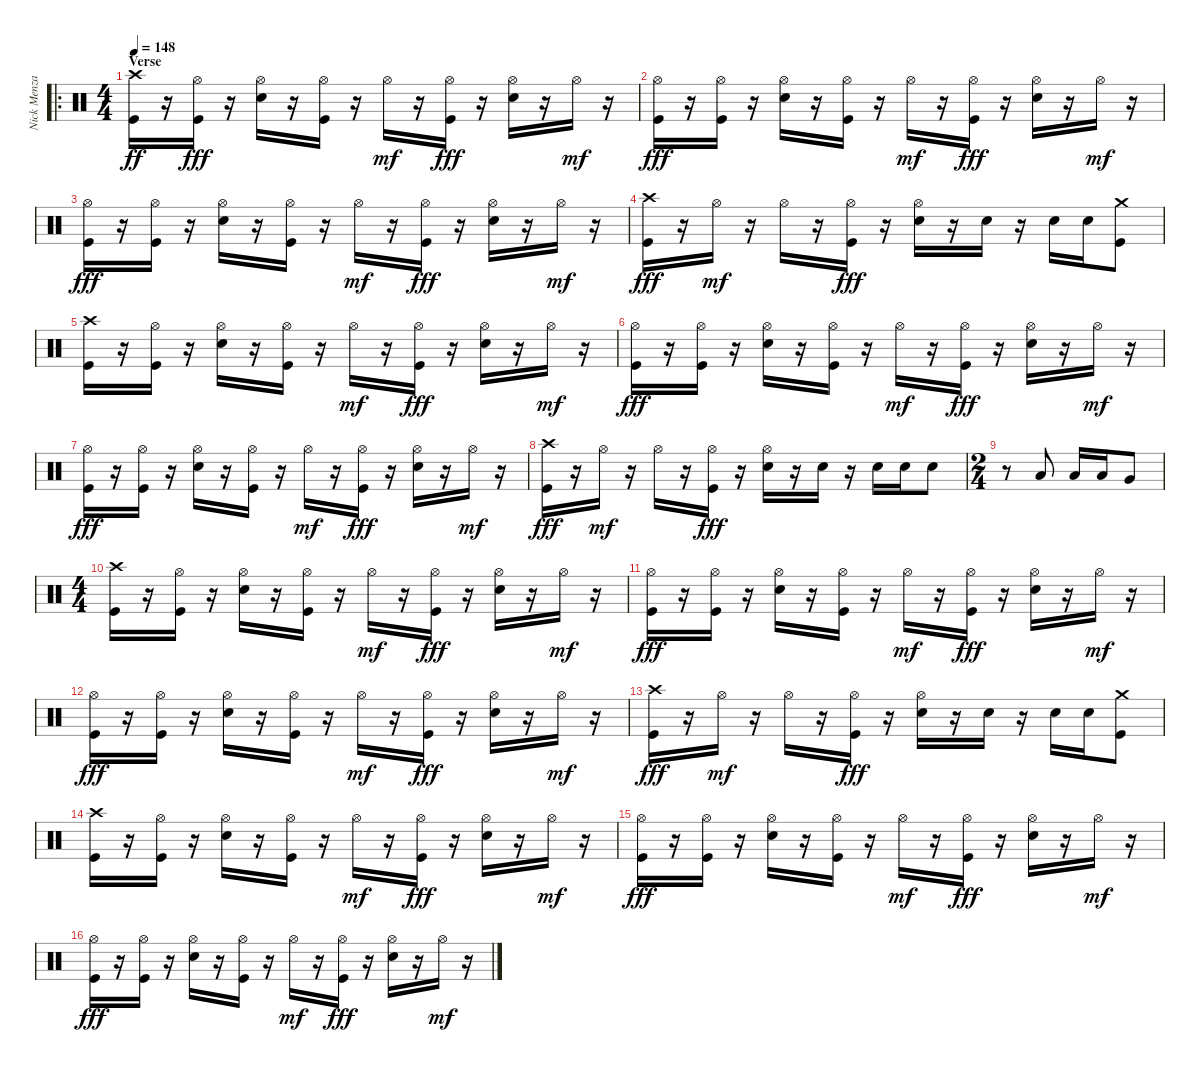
\track ("Nick Menza" "Nick Menza") {instrument percussion}
\staff {score}
\articulation defaults
\ro
\ts (4 4)
\section ("" "Verse")
\tempo 148
\clef neutral
\ks c
("Kick (hit)" "Crash high (hit)").16{dy ff} r.16 ("Kick (hit)" "Hi-Hat (open)").16{dy fff} r.16 ("Snare (hit) 2" "Hi-Hat (open)").16 r.16 ("Kick (hit)" "Hi-Hat (open)").16 r.16 "Hi-Hat (open)".16{dy mf} r.16 ("Kick (hit)" "Hi-Hat (open)").16{dy fff} r.16 ("Snare (hit) 2" "Hi-Hat (open)").16 r.16 "Hi-Hat (open)".16{dy mf} r.16 |
("Kick (hit)" "Hi-Hat (open)").16{dy fff} r.16 ("Kick (hit)" "Hi-Hat (open)").16 r.16 ("Snare (hit) 2" "Hi-Hat (open)").16 r.16 ("Kick (hit)" "Hi-Hat (open)").16 r.16 "Hi-Hat (open)".16{dy mf} r.16 ("Kick (hit)" "Hi-Hat (open)").16{dy fff} r.16 ("Snare (hit) 2" "Hi-Hat (open)").16 r.16 "Hi-Hat (open)".16{dy mf} r.16 |
("Kick (hit)" "Hi-Hat (open)").16{dy fff} r.16 ("Kick (hit)" "Hi-Hat (open)").16 r.16 ("Snare (hit) 2" "Hi-Hat (open)").16 r.16 ("Kick (hit)" "Hi-Hat (open)").16 r.16 "Hi-Hat (open)".16{dy mf} r.16 ("Kick (hit)" "Hi-Hat (open)").16{dy fff} r.16 ("Snare (hit) 2" "Hi-Hat (open)").16 r.16 "Hi-Hat (open)".16{dy mf} r.16 |
("Kick (hit)" "Crash high (hit)").16{dy fff} r.16 "Hi-Hat (open)".16{dy mf} r.16 "Hi-Hat (open)".16 r.16 ("Kick (hit)" "Hi-Hat (open)").16{dy fff} r.16 ("Snare (hit) 2" "Hi-Hat (open)").16 r.16 "Snare (hit) 2".16 r.16 "Snare (hit) 2".16 "Snare (hit) 2".16 ("Kick (hit)" "Crash medium (hit)").8 |
("Kick (hit)" "Crash high (hit)").16 r.16 ("Kick (hit)" "Hi-Hat (open)").16 r.16 ("Snare (hit) 2" "Hi-Hat (open)").16 r.16 ("Kick (hit)" "Hi-Hat (open)").16 r.16 "Hi-Hat (open)".16{dy mf} r.16 ("Kick (hit)" "Hi-Hat (open)").16{dy fff} r.16 ("Snare (hit) 2" "Hi-Hat (open)").16 r.16 "Hi-Hat (open)".16{dy mf} r.16 |
("Kick (hit)" "Hi-Hat (open)").16{dy fff} r.16 ("Kick (hit)" "Hi-Hat (open)").16 r.16 ("Snare (hit) 2" "Hi-Hat (open)").16 r.16 ("Kick (hit)" "Hi-Hat (open)").16 r.16 "Hi-Hat (open)".16{dy mf} r.16 ("Kick (hit)" "Hi-Hat (open)").16{dy fff} r.16 ("Snare (hit) 2" "Hi-Hat (open)").16 r.16 "Hi-Hat (open)".16{dy mf} r.16 |
("Kick (hit)" "Hi-Hat (open)").16{dy fff} r.16 ("Kick (hit)" "Hi-Hat (open)").16 r.16 ("Snare (hit) 2" "Hi-Hat (open)").16 r.16 ("Kick (hit)" "Hi-Hat (open)").16 r.16 "Hi-Hat (open)".16{dy mf} r.16 ("Kick (hit)" "Hi-Hat (open)").16{dy fff} r.16 ("Snare (hit) 2" "Hi-Hat (open)").16 r.16 "Hi-Hat (open)".16{dy mf} r.16 |
("Kick (hit)" "Crash high (hit)").16{dy fff} r.16 "Hi-Hat (open)".16{dy mf} r.16 "Hi-Hat (open)".16 r.16 ("Kick (hit)" "Hi-Hat (open)").16{dy fff} r.16 ("Snare (hit) 2" "Hi-Hat (open)").16 r.16 "Snare (hit) 2".16 r.16 "Snare (hit) 2".16 "Snare (hit) 2".16 "Snare (hit) 2".8 |
\ts (2 4)
r.8 "Low Tom (hit)".8 "Low Tom (hit)".16 "Low Tom (hit)".16 "Very Low Tom (hit)".8 |
\ts (4 4)
("Kick (hit)" "Crash high (hit)").16 r.16 ("Kick (hit)" "Hi-Hat (open)").16 r.16 ("Snare (hit) 2" "Hi-Hat (open)").16 r.16 ("Kick (hit)" "Hi-Hat (open)").16 r.16 "Hi-Hat (open)".16{dy mf} r.16 ("Kick (hit)" "Hi-Hat (open)").16{dy fff} r.16 ("Snare (hit) 2" "Hi-Hat (open)").16 r.16 "Hi-Hat (open)".16{dy mf} r.16 |
("Kick (hit)" "Hi-Hat (open)").16{dy fff} r.16 ("Kick (hit)" "Hi-Hat (open)").16 r.16 ("Snare (hit) 2" "Hi-Hat (open)").16 r.16 ("Kick (hit)" "Hi-Hat (open)").16 r.16 "Hi-Hat (open)".16{dy mf} r.16 ("Kick (hit)" "Hi-Hat (open)").16{dy fff} r.16 ("Snare (hit) 2" "Hi-Hat (open)").16 r.16 "Hi-Hat (open)".16{dy mf} r.16 |
("Kick (hit)" "Hi-Hat (open)").16{dy fff} r.16 ("Kick (hit)" "Hi-Hat (open)").16 r.16 ("Snare (hit) 2" "Hi-Hat (open)").16 r.16 ("Kick (hit)" "Hi-Hat (open)").16 r.16 "Hi-Hat (open)".16{dy mf} r.16 ("Kick (hit)" "Hi-Hat (open)").16{dy fff} r.16 ("Snare (hit) 2" "Hi-Hat (open)").16 r.16 "Hi-Hat (open)".16{dy mf} r.16 |
("Kick (hit)" "Crash high (hit)").16{dy fff} r.16 "Hi-Hat (open)".16{dy mf} r.16 "Hi-Hat (open)".16 r.16 ("Kick (hit)" "Hi-Hat (open)").16{dy fff} r.16 ("Snare (hit) 2" "Hi-Hat (open)").16 r.16 "Snare (hit) 2".16 r.16 "Snare (hit) 2".16 "Snare (hit) 2".16 ("Kick (hit)" "Crash medium (hit)").8 |
("Kick (hit)" "Crash high (hit)").16 r.16 ("Kick (hit)" "Hi-Hat (open)").16 r.16 ("Snare (hit) 2" "Hi-Hat (open)").16 r.16 ("Kick (hit)" "Hi-Hat (open)").16 r.16 "Hi-Hat (open)".16{dy mf} r.16 ("Kick (hit)" "Hi-Hat (open)").16{dy fff} r.16 ("Snare (hit) 2" "Hi-Hat (open)").16 r.16 "Hi-Hat (open)".16{dy mf} r.16 |
("Kick (hit)" "Hi-Hat (open)").16{dy fff} r.16 ("Kick (hit)" "Hi-Hat (open)").16 r.16 ("Snare (hit) 2" "Hi-Hat (open)").16 r.16 ("Kick (hit)" "Hi-Hat (open)").16 r.16 "Hi-Hat (open)".16{dy mf} r.16 ("Kick (hit)" "Hi-Hat (open)").16{dy fff} r.16 ("Snare (hit) 2" "Hi-Hat (open)").16 r.16 "Hi-Hat (open)".16{dy mf} r.16 |
("Kick (hit)" "Hi-Hat (open)").16{dy fff} r.16 ("Kick (hit)" "Hi-Hat (open)").16 r.16 ("Snare (hit) 2" "Hi-Hat (open)").16 r.16 ("Kick (hit)" "Hi-Hat (open)").16 r.16 "Hi-Hat (open)".16{dy mf} r.16 ("Kick (hit)" "Hi-Hat (open)").16{dy fff} r.16 ("Snare (hit) 2" "Hi-Hat (open)").16 r.16 "Hi-Hat (open)".16{dy mf} r.16
